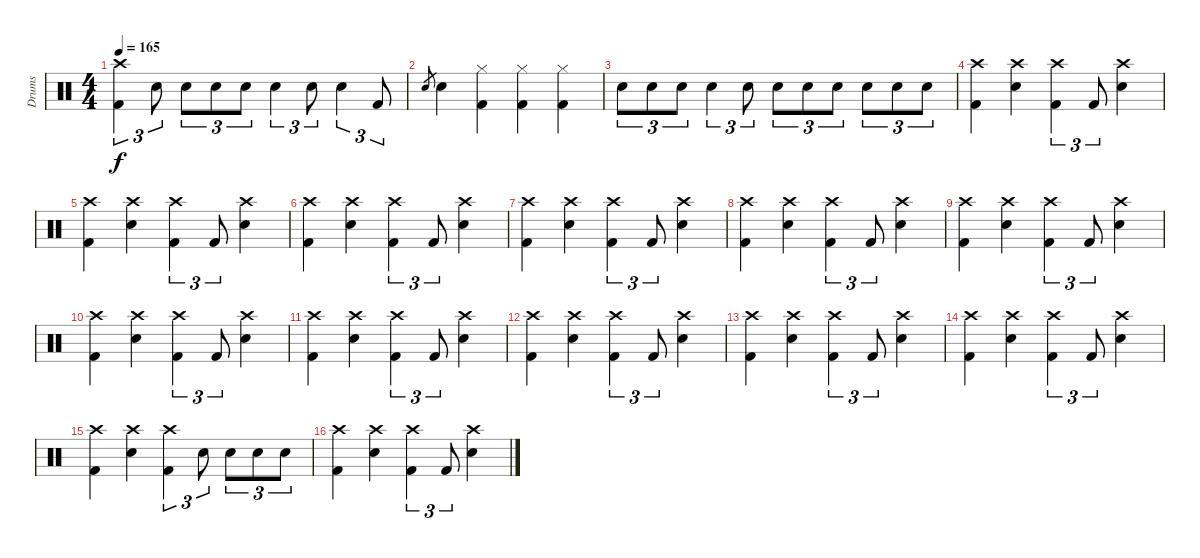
\track ("Drums" "Drums") {instrument percussion}
\staff {score}
\articulation defaults
\ts (4 4)
\tempo 165
\clef neutral
\ks c
("Crash high (hit)" "Kick (hit) 2").4{tu (3 2) dy f} "Electric Snare (hit)".8{tu (3 2)} "Electric Snare (hit)".8{tu (3 2)} "Electric Snare (hit)".8{tu (3 2)} "Electric Snare (hit)".8{tu (3 2)} "Electric Snare (hit)".4{tu (3 2)} "Electric Snare (hit)".8{tu (3 2)} "Electric Snare (hit)".4{tu (3 2)} "Kick (hit) 2".8{tu (3 2)} |
"Electric Snare (hit)".8{gr} "Electric Snare (hit)".4 ("Hi-Hat (closed)" "Kick (hit) 2").4 ("Hi-Hat (closed)" "Kick (hit) 2").4 ("Hi-Hat (closed)" "Kick (hit) 2").4 |
"Electric Snare (hit)".8{tu (3 2)} "Electric Snare (hit)".8{tu (3 2)} "Electric Snare (hit)".8{tu (3 2)} "Electric Snare (hit)".4{tu (3 2)} "Electric Snare (hit)".8{tu (3 2)} "Electric Snare (hit)".8{tu (3 2)} "Electric Snare (hit)".8{tu (3 2)} "Electric Snare (hit)".8{tu (3 2)} "Electric Snare (hit)".8{tu (3 2)} "Electric Snare (hit)".8{tu (3 2)} "Electric Snare (hit)".8{tu (3 2)} |
("Crash high (hit)" "Kick (hit) 2").4 ("Crash high (hit)" "Electric Snare (hit)").4 ("Crash high (hit)" "Kick (hit) 2").4{tu (3 2)} "Kick (hit) 2".8{tu (3 2)} ("Crash high (hit)" "Electric Snare (hit)").4 |
("Crash high (hit)" "Kick (hit) 2").4 ("Crash high (hit)" "Electric Snare (hit)").4 ("Crash high (hit)" "Kick (hit) 2").4{tu (3 2)} "Kick (hit) 2".8{tu (3 2)} ("Crash high (hit)" "Electric Snare (hit)").4 |
("Crash high (hit)" "Kick (hit) 2").4 ("Crash high (hit)" "Electric Snare (hit)").4 ("Crash high (hit)" "Kick (hit) 2").4{tu (3 2)} "Kick (hit) 2".8{tu (3 2)} ("Crash high (hit)" "Electric Snare (hit)").4 |
("Crash high (hit)" "Kick (hit) 2").4 ("Crash high (hit)" "Electric Snare (hit)").4 ("Crash high (hit)" "Kick (hit) 2").4{tu (3 2)} "Kick (hit) 2".8{tu (3 2)} ("Crash high (hit)" "Electric Snare (hit)").4 |
("Crash high (hit)" "Kick (hit) 2").4 ("Crash high (hit)" "Electric Snare (hit)").4 ("Crash high (hit)" "Kick (hit) 2").4{tu (3 2)} "Kick (hit) 2".8{tu (3 2)} ("Crash high (hit)" "Electric Snare (hit)").4 |
("Crash high (hit)" "Kick (hit) 2").4 ("Crash high (hit)" "Electric Snare (hit)").4 ("Crash high (hit)" "Kick (hit) 2").4{tu (3 2)} "Kick (hit) 2".8{tu (3 2)} ("Crash high (hit)" "Electric Snare (hit)").4 |
("Crash high (hit)" "Kick (hit) 2").4 ("Crash high (hit)" "Electric Snare (hit)").4 ("Crash high (hit)" "Kick (hit) 2").4{tu (3 2)} "Kick (hit) 2".8{tu (3 2)} ("Crash high (hit)" "Electric Snare (hit)").4 |
("Crash high (hit)" "Kick (hit) 2").4 ("Crash high (hit)" "Electric Snare (hit)").4 ("Crash high (hit)" "Kick (hit) 2").4{tu (3 2)} "Kick (hit) 2".8{tu (3 2)} ("Crash high (hit)" "Electric Snare (hit)").4 |
("Crash high (hit)" "Kick (hit) 2").4 ("Crash high (hit)" "Electric Snare (hit)").4 ("Crash high (hit)" "Kick (hit) 2").4{tu (3 2)} "Kick (hit) 2".8{tu (3 2)} ("Crash high (hit)" "Electric Snare (hit)").4 |
("Crash high (hit)" "Kick (hit) 2").4 ("Crash high (hit)" "Electric Snare (hit)").4 ("Crash high (hit)" "Kick (hit) 2").4{tu (3 2)} "Kick (hit) 2".8{tu (3 2)} ("Crash high (hit)" "Electric Snare (hit)").4 |
("Crash high (hit)" "Kick (hit) 2").4 ("Crash high (hit)" "Electric Snare (hit)").4 ("Crash high (hit)" "Kick (hit) 2").4{tu (3 2)} "Kick (hit) 2".8{tu (3 2)} ("Crash high (hit)" "Electric Snare (hit)").4 |
("Crash high (hit)" "Kick (hit) 2").4 ("Crash high (hit)" "Electric Snare (hit)").4 ("Crash high (hit)" "Kick (hit) 2").4{tu (3 2)} "Electric Snare (hit)".8{tu (3 2)} "Electric Snare (hit)".8{tu (3 2)} "Electric Snare (hit)".8{tu (3 2)} "Electric Snare (hit)".8{tu (3 2)} |
("Crash high (hit)" "Kick (hit) 2").4 ("Crash high (hit)" "Electric Snare (hit)").4 ("Crash high (hit)" "Kick (hit) 2").4{tu (3 2)} "Kick (hit) 2".8{tu (3 2)} ("Crash high (hit)" "Electric Snare (hit)").4
